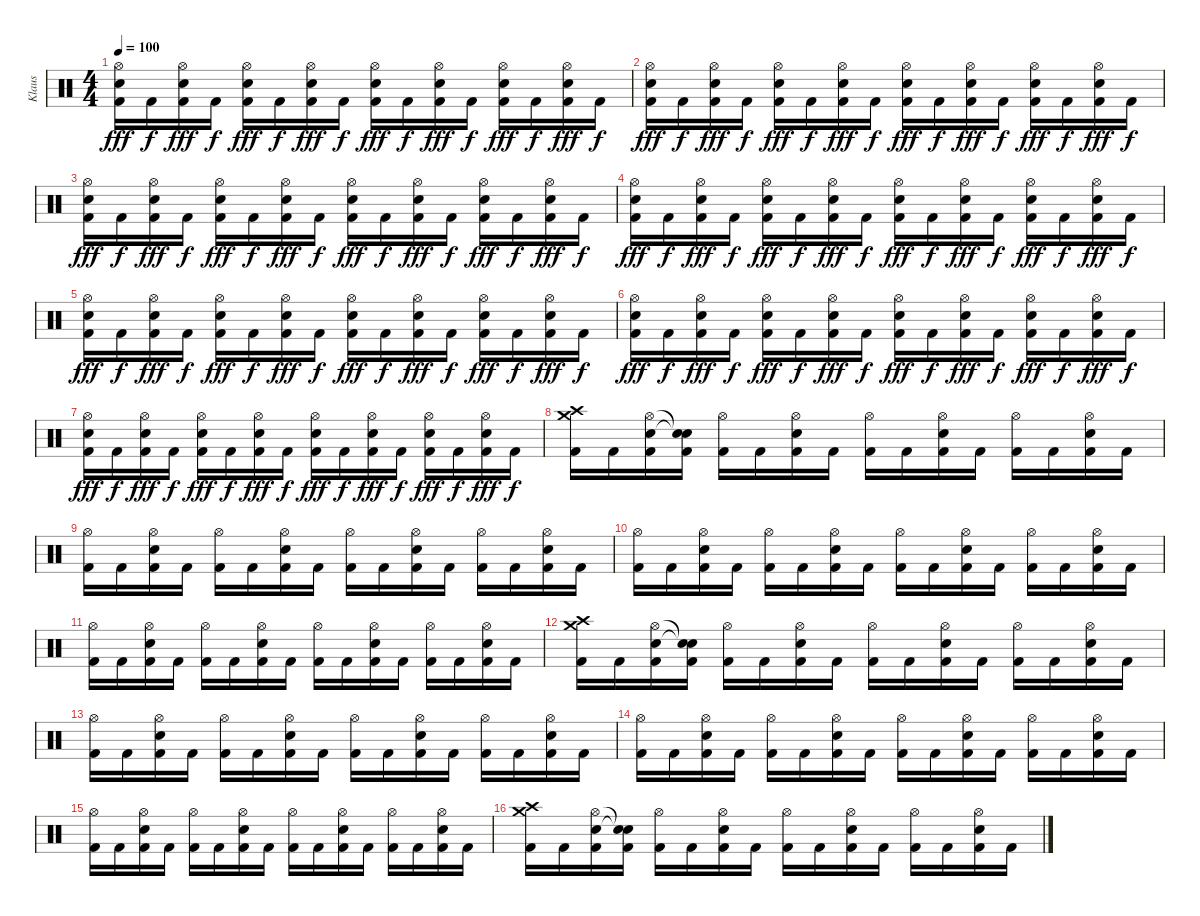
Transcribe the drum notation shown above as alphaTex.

\track ("Klaus" "Klaus") {instrument percussion}
\staff {score}
\articulation defaults
\ts (4 4)
\tempo 100
\clef neutral
\ks c
("Hi-Hat (open)" "Electric Snare (hit)" "Kick (hit) 2").16{dy fff} "Kick (hit) 2".16{dy f} ("Hi-Hat (open)" "Electric Snare (hit)" "Kick (hit) 2").16{dy fff} "Kick (hit) 2".16{dy f} ("Hi-Hat (open)" "Electric Snare (hit)" "Kick (hit) 2").16{dy fff} "Kick (hit) 2".16{dy f} ("Hi-Hat (open)" "Electric Snare (hit)" "Kick (hit) 2").16{dy fff} "Kick (hit) 2".16{dy f} ("Hi-Hat (open)" "Electric Snare (hit)" "Kick (hit) 2").16{dy fff} "Kick (hit) 2".16{dy f} ("Hi-Hat (open)" "Electric Snare (hit)" "Kick (hit) 2").16{dy fff} "Kick (hit) 2".16{dy f} ("Hi-Hat (open)" "Electric Snare (hit)" "Kick (hit) 2").16{dy fff} "Kick (hit) 2".16{dy f} ("Hi-Hat (open)" "Electric Snare (hit)" "Kick (hit) 2").16{dy fff} "Kick (hit) 2".16{dy f} |
("Hi-Hat (open)" "Electric Snare (hit)" "Kick (hit) 2").16{dy fff} "Kick (hit) 2".16{dy f} ("Hi-Hat (open)" "Electric Snare (hit)" "Kick (hit) 2").16{dy fff} "Kick (hit) 2".16{dy f} ("Hi-Hat (open)" "Electric Snare (hit)" "Kick (hit) 2").16{dy fff} "Kick (hit) 2".16{dy f} ("Hi-Hat (open)" "Electric Snare (hit)" "Kick (hit) 2").16{dy fff} "Kick (hit) 2".16{dy f} ("Hi-Hat (open)" "Electric Snare (hit)" "Kick (hit) 2").16{dy fff} "Kick (hit) 2".16{dy f} ("Hi-Hat (open)" "Electric Snare (hit)" "Kick (hit) 2").16{dy fff} "Kick (hit) 2".16{dy f} ("Hi-Hat (open)" "Electric Snare (hit)" "Kick (hit) 2").16{dy fff} "Kick (hit) 2".16{dy f} ("Hi-Hat (open)" "Electric Snare (hit)" "Kick (hit) 2").16{dy fff} "Kick (hit) 2".16{dy f} |
("Hi-Hat (open)" "Electric Snare (hit)" "Kick (hit) 2").16{dy fff} "Kick (hit) 2".16{dy f} ("Hi-Hat (open)" "Electric Snare (hit)" "Kick (hit) 2").16{dy fff} "Kick (hit) 2".16{dy f} ("Hi-Hat (open)" "Electric Snare (hit)" "Kick (hit) 2").16{dy fff} "Kick (hit) 2".16{dy f} ("Hi-Hat (open)" "Electric Snare (hit)" "Kick (hit) 2").16{dy fff} "Kick (hit) 2".16{dy f} ("Hi-Hat (open)" "Electric Snare (hit)" "Kick (hit) 2").16{dy fff} "Kick (hit) 2".16{dy f} ("Hi-Hat (open)" "Electric Snare (hit)" "Kick (hit) 2").16{dy fff} "Kick (hit) 2".16{dy f} ("Hi-Hat (open)" "Electric Snare (hit)" "Kick (hit) 2").16{dy fff} "Kick (hit) 2".16{dy f} ("Hi-Hat (open)" "Electric Snare (hit)" "Kick (hit) 2").16{dy fff} "Kick (hit) 2".16{dy f} |
("Hi-Hat (open)" "Electric Snare (hit)" "Kick (hit) 2").16{dy fff} "Kick (hit) 2".16{dy f} ("Hi-Hat (open)" "Electric Snare (hit)" "Kick (hit) 2").16{dy fff} "Kick (hit) 2".16{dy f} ("Hi-Hat (open)" "Electric Snare (hit)" "Kick (hit) 2").16{dy fff} "Kick (hit) 2".16{dy f} ("Hi-Hat (open)" "Electric Snare (hit)" "Kick (hit) 2").16{dy fff} "Kick (hit) 2".16{dy f} ("Hi-Hat (open)" "Electric Snare (hit)" "Kick (hit) 2").16{dy fff} "Kick (hit) 2".16{dy f} ("Hi-Hat (open)" "Electric Snare (hit)" "Kick (hit) 2").16{dy fff} "Kick (hit) 2".16{dy f} ("Hi-Hat (open)" "Electric Snare (hit)" "Kick (hit) 2").16{dy fff} "Kick (hit) 2".16{dy f} ("Hi-Hat (open)" "Electric Snare (hit)" "Kick (hit) 2").16{dy fff} "Kick (hit) 2".16{dy f} |
("Hi-Hat (open)" "Electric Snare (hit)" "Kick (hit) 2").16{dy fff} "Kick (hit) 2".16{dy f} ("Hi-Hat (open)" "Electric Snare (hit)" "Kick (hit) 2").16{dy fff} "Kick (hit) 2".16{dy f} ("Hi-Hat (open)" "Electric Snare (hit)" "Kick (hit) 2").16{dy fff} "Kick (hit) 2".16{dy f} ("Hi-Hat (open)" "Electric Snare (hit)" "Kick (hit) 2").16{dy fff} "Kick (hit) 2".16{dy f} ("Hi-Hat (open)" "Electric Snare (hit)" "Kick (hit) 2").16{dy fff} "Kick (hit) 2".16{dy f} ("Hi-Hat (open)" "Electric Snare (hit)" "Kick (hit) 2").16{dy fff} "Kick (hit) 2".16{dy f} ("Hi-Hat (open)" "Electric Snare (hit)" "Kick (hit) 2").16{dy fff} "Kick (hit) 2".16{dy f} ("Hi-Hat (open)" "Electric Snare (hit)" "Kick (hit) 2").16{dy fff} "Kick (hit) 2".16{dy f} |
("Hi-Hat (open)" "Electric Snare (hit)" "Kick (hit) 2").16{dy fff} "Kick (hit) 2".16{dy f} ("Hi-Hat (open)" "Electric Snare (hit)" "Kick (hit) 2").16{dy fff} "Kick (hit) 2".16{dy f} ("Hi-Hat (open)" "Electric Snare (hit)" "Kick (hit) 2").16{dy fff} "Kick (hit) 2".16{dy f} ("Hi-Hat (open)" "Electric Snare (hit)" "Kick (hit) 2").16{dy fff} "Kick (hit) 2".16{dy f} ("Hi-Hat (open)" "Electric Snare (hit)" "Kick (hit) 2").16{dy fff} "Kick (hit) 2".16{dy f} ("Hi-Hat (open)" "Electric Snare (hit)" "Kick (hit) 2").16{dy fff} "Kick (hit) 2".16{dy f} ("Hi-Hat (open)" "Electric Snare (hit)" "Kick (hit) 2").16{dy fff} "Kick (hit) 2".16{dy f} ("Hi-Hat (open)" "Electric Snare (hit)" "Kick (hit) 2").16{dy fff} "Kick (hit) 2".16{dy f} |
("Hi-Hat (open)" "Electric Snare (hit)" "Kick (hit) 2").16{dy fff} "Kick (hit) 2".16{dy f} ("Hi-Hat (open)" "Electric Snare (hit)" "Kick (hit) 2").16{dy fff} "Kick (hit) 2".16{dy f} ("Hi-Hat (open)" "Electric Snare (hit)" "Kick (hit) 2").16{dy fff} "Kick (hit) 2".16{dy f} ("Hi-Hat (open)" "Electric Snare (hit)" "Kick (hit) 2").16{dy fff} "Kick (hit) 2".16{dy f} ("Hi-Hat (open)" "Electric Snare (hit)" "Kick (hit) 2").16{dy fff} "Kick (hit) 2".16{dy f} ("Hi-Hat (open)" "Electric Snare (hit)" "Kick (hit) 2").16{dy fff} "Kick (hit) 2".16{dy f} ("Hi-Hat (open)" "Electric Snare (hit)" "Kick (hit) 2").16{dy fff} "Kick (hit) 2".16{dy f} ("Hi-Hat (open)" "Electric Snare (hit)" "Kick (hit) 2").16{dy fff} "Kick (hit) 2".16{dy f} |
("Crash high (hit)" "Crash medium (hit)" "Kick (hit) 2").16 "Kick (hit) 2".16 ("Hi-Hat (open)" "Electric Snare (hit)" "Kick (hit) 2").16 ("Snare (hit)"{t} "Snare (hit)"{t} "Kick (hit) 2").16 ("Hi-Hat (open)" "Kick (hit) 2").16 "Kick (hit) 2".16 ("Hi-Hat (open)" "Electric Snare (hit)" "Kick (hit) 2").16 "Kick (hit) 2".16 ("Hi-Hat (open)" "Kick (hit) 2").16 "Kick (hit) 2".16 ("Hi-Hat (open)" "Electric Snare (hit)" "Kick (hit) 2").16 "Kick (hit) 2".16 ("Hi-Hat (open)" "Kick (hit) 2").16 "Kick (hit) 2".16 ("Hi-Hat (open)" "Electric Snare (hit)" "Kick (hit) 2").16 "Kick (hit) 2".16 |
("Hi-Hat (open)" "Kick (hit) 2").16 "Kick (hit) 2".16 ("Hi-Hat (open)" "Electric Snare (hit)" "Kick (hit) 2").16 "Kick (hit) 2".16 ("Hi-Hat (open)" "Kick (hit) 2").16 "Kick (hit) 2".16 ("Hi-Hat (open)" "Electric Snare (hit)" "Kick (hit) 2").16 "Kick (hit) 2".16 ("Hi-Hat (open)" "Kick (hit) 2").16 "Kick (hit) 2".16 ("Hi-Hat (open)" "Electric Snare (hit)" "Kick (hit) 2").16 "Kick (hit) 2".16 ("Hi-Hat (open)" "Kick (hit) 2").16 "Kick (hit) 2".16 ("Hi-Hat (open)" "Electric Snare (hit)" "Kick (hit) 2").16 "Kick (hit) 2".16 |
("Hi-Hat (open)" "Kick (hit) 2").16 "Kick (hit) 2".16 ("Hi-Hat (open)" "Electric Snare (hit)" "Kick (hit) 2").16 "Kick (hit) 2".16 ("Hi-Hat (open)" "Kick (hit) 2").16 "Kick (hit) 2".16 ("Hi-Hat (open)" "Electric Snare (hit)" "Kick (hit) 2").16 "Kick (hit) 2".16 ("Hi-Hat (open)" "Kick (hit) 2").16 "Kick (hit) 2".16 ("Hi-Hat (open)" "Electric Snare (hit)" "Kick (hit) 2").16 "Kick (hit) 2".16 ("Hi-Hat (open)" "Kick (hit) 2").16 "Kick (hit) 2".16 ("Hi-Hat (open)" "Electric Snare (hit)" "Kick (hit) 2").16 "Kick (hit) 2".16 |
("Hi-Hat (open)" "Kick (hit) 2").16 "Kick (hit) 2".16 ("Hi-Hat (open)" "Electric Snare (hit)" "Kick (hit) 2").16 "Kick (hit) 2".16 ("Hi-Hat (open)" "Kick (hit) 2").16 "Kick (hit) 2".16 ("Hi-Hat (open)" "Electric Snare (hit)" "Kick (hit) 2").16 "Kick (hit) 2".16 ("Hi-Hat (open)" "Kick (hit) 2").16 "Kick (hit) 2".16 ("Hi-Hat (open)" "Electric Snare (hit)" "Kick (hit) 2").16 "Kick (hit) 2".16 ("Hi-Hat (open)" "Kick (hit) 2").16 "Kick (hit) 2".16 ("Hi-Hat (open)" "Electric Snare (hit)" "Kick (hit) 2").16 "Kick (hit) 2".16 |
("Crash high (hit)" "Crash medium (hit)" "Kick (hit) 2").16 "Kick (hit) 2".16 ("Hi-Hat (open)" "Electric Snare (hit)" "Kick (hit) 2").16 ("Snare (hit)"{t} "Snare (hit)"{t} "Kick (hit) 2").16 ("Hi-Hat (open)" "Kick (hit) 2").16 "Kick (hit) 2".16 ("Hi-Hat (open)" "Electric Snare (hit)" "Kick (hit) 2").16 "Kick (hit) 2".16 ("Hi-Hat (open)" "Kick (hit) 2").16 "Kick (hit) 2".16 ("Hi-Hat (open)" "Electric Snare (hit)" "Kick (hit) 2").16 "Kick (hit) 2".16 ("Hi-Hat (open)" "Kick (hit) 2").16 "Kick (hit) 2".16 ("Hi-Hat (open)" "Electric Snare (hit)" "Kick (hit) 2").16 "Kick (hit) 2".16 |
("Hi-Hat (open)" "Kick (hit) 2").16 "Kick (hit) 2".16 ("Hi-Hat (open)" "Electric Snare (hit)" "Kick (hit) 2").16 "Kick (hit) 2".16 ("Hi-Hat (open)" "Kick (hit) 2").16 "Kick (hit) 2".16 ("Hi-Hat (open)" "Electric Snare (hit)" "Kick (hit) 2").16 "Kick (hit) 2".16 ("Hi-Hat (open)" "Kick (hit) 2").16 "Kick (hit) 2".16 ("Hi-Hat (open)" "Electric Snare (hit)" "Kick (hit) 2").16 "Kick (hit) 2".16 ("Hi-Hat (open)" "Kick (hit) 2").16 "Kick (hit) 2".16 ("Hi-Hat (open)" "Electric Snare (hit)" "Kick (hit) 2").16 "Kick (hit) 2".16 |
("Hi-Hat (open)" "Kick (hit) 2").16 "Kick (hit) 2".16 ("Hi-Hat (open)" "Electric Snare (hit)" "Kick (hit) 2").16 "Kick (hit) 2".16 ("Hi-Hat (open)" "Kick (hit) 2").16 "Kick (hit) 2".16 ("Hi-Hat (open)" "Electric Snare (hit)" "Kick (hit) 2").16 "Kick (hit) 2".16 ("Hi-Hat (open)" "Kick (hit) 2").16 "Kick (hit) 2".16 ("Hi-Hat (open)" "Electric Snare (hit)" "Kick (hit) 2").16 "Kick (hit) 2".16 ("Hi-Hat (open)" "Kick (hit) 2").16 "Kick (hit) 2".16 ("Hi-Hat (open)" "Electric Snare (hit)" "Kick (hit) 2").16 "Kick (hit) 2".16 |
("Hi-Hat (open)" "Kick (hit) 2").16 "Kick (hit) 2".16 ("Hi-Hat (open)" "Electric Snare (hit)" "Kick (hit) 2").16 "Kick (hit) 2".16 ("Hi-Hat (open)" "Kick (hit) 2").16 "Kick (hit) 2".16 ("Hi-Hat (open)" "Electric Snare (hit)" "Kick (hit) 2").16 "Kick (hit) 2".16 ("Hi-Hat (open)" "Kick (hit) 2").16 "Kick (hit) 2".16 ("Hi-Hat (open)" "Electric Snare (hit)" "Kick (hit) 2").16 "Kick (hit) 2".16 ("Hi-Hat (open)" "Kick (hit) 2").16 "Kick (hit) 2".16 ("Hi-Hat (open)" "Electric Snare (hit)" "Kick (hit) 2").16 "Kick (hit) 2".16 |
("Crash high (hit)" "Crash medium (hit)" "Kick (hit) 2").16 "Kick (hit) 2".16 ("Hi-Hat (open)" "Electric Snare (hit)" "Kick (hit) 2").16 ("Snare (hit)"{t} "Snare (hit)"{t} "Kick (hit) 2").16 ("Hi-Hat (open)" "Kick (hit) 2").16 "Kick (hit) 2".16 ("Hi-Hat (open)" "Electric Snare (hit)" "Kick (hit) 2").16 "Kick (hit) 2".16 ("Hi-Hat (open)" "Kick (hit) 2").16 "Kick (hit) 2".16 ("Hi-Hat (open)" "Electric Snare (hit)" "Kick (hit) 2").16 "Kick (hit) 2".16 ("Hi-Hat (open)" "Kick (hit) 2").16 "Kick (hit) 2".16 ("Hi-Hat (open)" "Electric Snare (hit)" "Kick (hit) 2").16 "Kick (hit) 2".16
